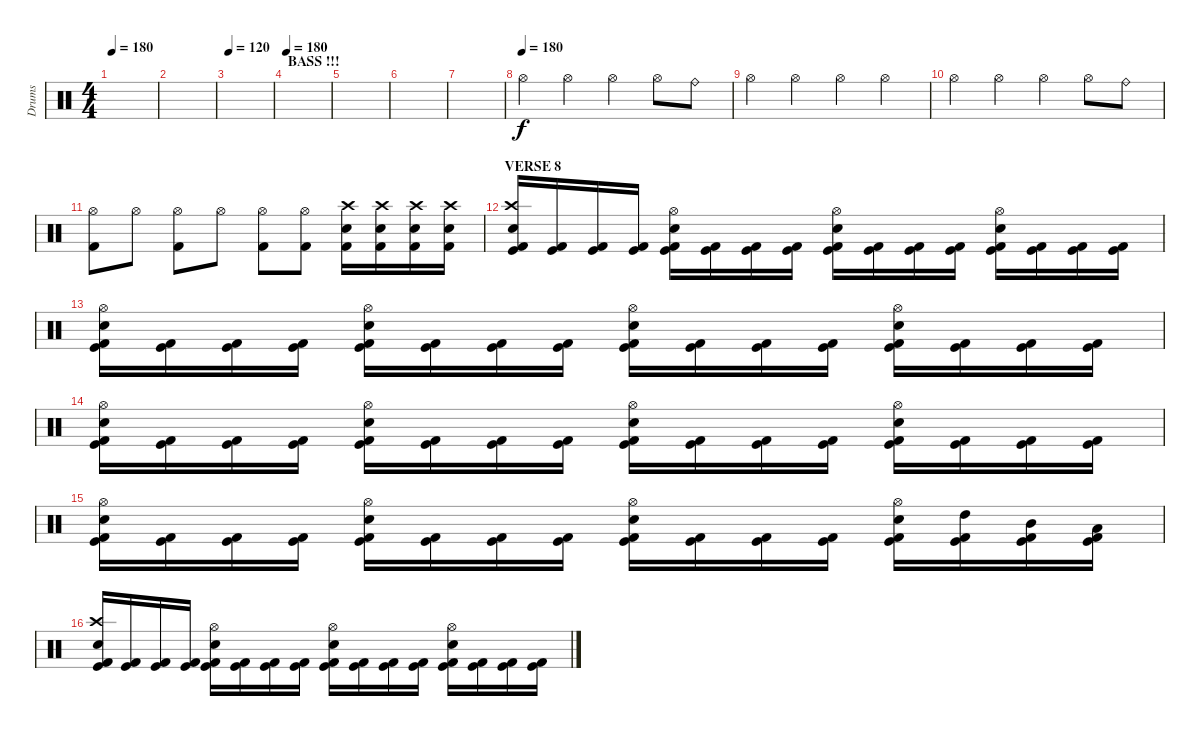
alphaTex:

\track ("Drums" "Drums") {instrument percussion}
\staff {score}
\articulation defaults
\ts (4 4)
\tempo 180
\clef neutral
\ks c
|
|
\tempo 120
|
\section ("" "BASS !!!")
\tempo 180
|
|
|
|
\tempo (180)
"Hi-Hat (open)".4 "Hi-Hat (open)".4 "Hi-Hat (open)".4 "Hi-Hat (open)".8 "Ride (bell)".8 |
"Hi-Hat (open)".4 "Hi-Hat (open)".4 "Hi-Hat (open)".4 "Hi-Hat (open)".4 |
"Hi-Hat (open)".4 "Hi-Hat (open)".4 "Hi-Hat (open)".4 "Hi-Hat (open)".8 "Ride (bell)".8 |
("Kick (hit) 2" "Hi-Hat (open)").8 "Hi-Hat (open)".8 ("Kick (hit) 2" "Hi-Hat (open)").8 "Hi-Hat (open)".8 ("Kick (hit) 2" "Hi-Hat (open)").8 ("Kick (hit) 2" "Hi-Hat (open)").8 ("Kick (hit) 2" "Electric Snare (hit)" "Crash high (hit)").16 ("Kick (hit) 2" "Electric Snare (hit)" "Crash high (hit)").16 ("Kick (hit) 2" "Electric Snare (hit)" "Crash high (hit)").16 ("Kick (hit) 2" "Electric Snare (hit)" "Crash high (hit)").16 |
\section ("" "VERSE 8")
("Crash high (hit)" "Electric Snare (hit)" "Kick (hit)" "Kick (hit) 2").16 ("Kick (hit)" "Kick (hit) 2").16 ("Kick (hit)" "Kick (hit) 2").16 ("Kick (hit)" "Kick (hit) 2").16 ("Hi-Hat (open)" "Electric Snare (hit)" "Kick (hit)" "Kick (hit) 2").16 ("Kick (hit)" "Kick (hit) 2").16 ("Kick (hit)" "Kick (hit) 2").16 ("Kick (hit)" "Kick (hit) 2").16 ("Hi-Hat (open)" "Electric Snare (hit)" "Kick (hit)" "Kick (hit) 2").16 ("Kick (hit)" "Kick (hit) 2").16 ("Kick (hit)" "Kick (hit) 2").16 ("Kick (hit)" "Kick (hit) 2").16 ("Hi-Hat (open)" "Electric Snare (hit)" "Kick (hit)" "Kick (hit) 2").16 ("Kick (hit)" "Kick (hit) 2").16 ("Kick (hit)" "Kick (hit) 2").16 ("Kick (hit)" "Kick (hit) 2").16 |
("Hi-Hat (open)" "Electric Snare (hit)" "Kick (hit)" "Kick (hit) 2").16 ("Kick (hit)" "Kick (hit) 2").16 ("Kick (hit)" "Kick (hit) 2").16 ("Kick (hit)" "Kick (hit) 2").16 ("Hi-Hat (open)" "Electric Snare (hit)" "Kick (hit)" "Kick (hit) 2").16 ("Kick (hit)" "Kick (hit) 2").16 ("Kick (hit)" "Kick (hit) 2").16 ("Kick (hit)" "Kick (hit) 2").16 ("Hi-Hat (open)" "Electric Snare (hit)" "Kick (hit)" "Kick (hit) 2").16 ("Kick (hit)" "Kick (hit) 2").16 ("Kick (hit)" "Kick (hit) 2").16 ("Kick (hit)" "Kick (hit) 2").16 ("Hi-Hat (open)" "Electric Snare (hit)" "Kick (hit)" "Kick (hit) 2").16 ("Kick (hit)" "Kick (hit) 2").16 ("Kick (hit)" "Kick (hit) 2").16 ("Kick (hit)" "Kick (hit) 2").16 |
("Hi-Hat (open)" "Electric Snare (hit)" "Kick (hit)" "Kick (hit) 2").16 ("Kick (hit)" "Kick (hit) 2").16 ("Kick (hit)" "Kick (hit) 2").16 ("Kick (hit)" "Kick (hit) 2").16 ("Hi-Hat (open)" "Electric Snare (hit)" "Kick (hit)" "Kick (hit) 2").16 ("Kick (hit)" "Kick (hit) 2").16 ("Kick (hit)" "Kick (hit) 2").16 ("Kick (hit)" "Kick (hit) 2").16 ("Hi-Hat (open)" "Electric Snare (hit)" "Kick (hit)" "Kick (hit) 2").16 ("Kick (hit)" "Kick (hit) 2").16 ("Kick (hit)" "Kick (hit) 2").16 ("Kick (hit)" "Kick (hit) 2").16 ("Hi-Hat (open)" "Electric Snare (hit)" "Kick (hit)" "Kick (hit) 2").16 ("Kick (hit)" "Kick (hit) 2").16 ("Kick (hit)" "Kick (hit) 2").16 ("Kick (hit)" "Kick (hit) 2").16 |
("Hi-Hat (open)" "Electric Snare (hit)" "Kick (hit)" "Kick (hit) 2").16 ("Kick (hit)" "Kick (hit) 2").16 ("Kick (hit)" "Kick (hit) 2").16 ("Kick (hit)" "Kick (hit) 2").16 ("Hi-Hat (open)" "Electric Snare (hit)" "Kick (hit)" "Kick (hit) 2").16 ("Kick (hit)" "Kick (hit) 2").16 ("Kick (hit)" "Kick (hit) 2").16 ("Kick (hit)" "Kick (hit) 2").16 ("Hi-Hat (open)" "Electric Snare (hit)" "Kick (hit)" "Kick (hit) 2").16 ("Kick (hit)" "Kick (hit) 2").16 ("Kick (hit)" "Kick (hit) 2").16 ("Kick (hit)" "Kick (hit) 2").16 ("Hi-Hat (open)" "Electric Snare (hit)" "Kick (hit)" "Kick (hit) 2").16 ("High Tom (hit)" "Kick (hit)" "Kick (hit) 2").16 ("Mid Tom (hit)" "Kick (hit)" "Kick (hit) 2").16 ("Low Tom (hit)" "Kick (hit)" "Kick (hit) 2").16 |
("Crash high (hit)" "Electric Snare (hit)" "Kick (hit)" "Kick (hit) 2").16 ("Kick (hit)" "Kick (hit) 2").16 ("Kick (hit)" "Kick (hit) 2").16 ("Kick (hit)" "Kick (hit) 2").16 ("Hi-Hat (open)" "Electric Snare (hit)" "Kick (hit)" "Kick (hit) 2").16 ("Kick (hit)" "Kick (hit) 2").16 ("Kick (hit)" "Kick (hit) 2").16 ("Kick (hit)" "Kick (hit) 2").16 ("Hi-Hat (open)" "Electric Snare (hit)" "Kick (hit)" "Kick (hit) 2").16 ("Kick (hit)" "Kick (hit) 2").16 ("Kick (hit)" "Kick (hit) 2").16 ("Kick (hit)" "Kick (hit) 2").16 ("Hi-Hat (open)" "Electric Snare (hit)" "Kick (hit)" "Kick (hit) 2").16 ("Kick (hit)" "Kick (hit) 2").16 ("Kick (hit)" "Kick (hit) 2").16 ("Kick (hit)" "Kick (hit) 2").16
